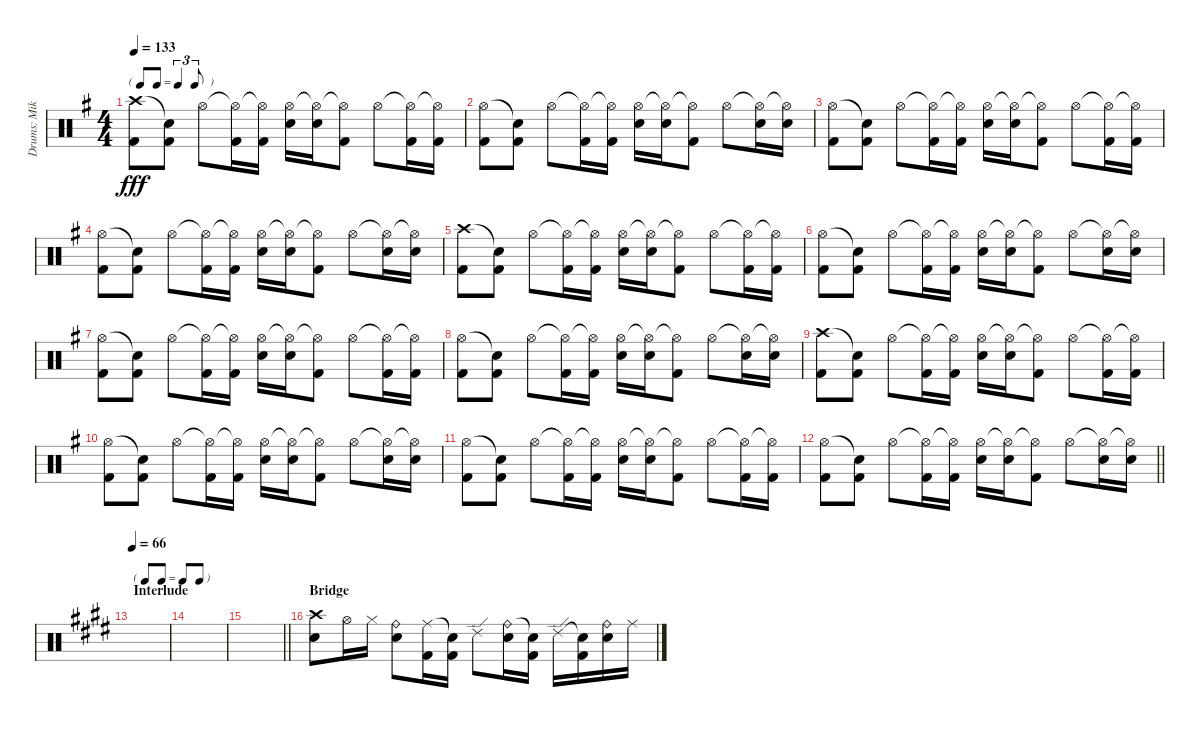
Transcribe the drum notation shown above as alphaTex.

\track ("Drums: Mike" "Drums: Mik") {instrument percussion}
\staff {score}
\articulation defaults
\ts (4 4)
\tf triplet8th
\tempo 133
\clef neutral
\ks g
("Crash high (hit)" "Kick (hit) 2").8{dy fff} ("Snare (hit)"{t} "Kick (hit) 2").8 "Hi-Hat (open)".8 ("Hi-Hat (open)"{t} "Kick (hit) 2").16 ("Hi-Hat (open)"{t} "Kick (hit) 2").16 ("Hi-Hat (open)" "Electric Snare (hit)").16 ("Hi-Hat (open)"{t} "Electric Snare (hit)").16 ("Hi-Hat (open)"{t} "Kick (hit) 2").8 "Hi-Hat (open)".8 ("Hi-Hat (open)"{t} "Kick (hit) 2").16 ("Hi-Hat (open)"{t} "Kick (hit) 2").16 |
("Hi-Hat (open)" "Kick (hit) 2").8 ("Snare (hit)"{t} "Kick (hit) 2").8 "Hi-Hat (open)".8 ("Hi-Hat (open)"{t} "Kick (hit) 2").16 ("Hi-Hat (open)"{t} "Kick (hit) 2").16 ("Hi-Hat (open)" "Electric Snare (hit)").16 ("Hi-Hat (open)"{t} "Electric Snare (hit)").16 ("Hi-Hat (open)"{t} "Kick (hit) 2").8 "Hi-Hat (open)".8 ("Hi-Hat (open)"{t} "Electric Snare (hit)").16 ("Hi-Hat (open)"{t} "Electric Snare (hit)").16 |
("Hi-Hat (open)" "Kick (hit) 2").8 ("Snare (hit)"{t} "Kick (hit) 2").8 "Hi-Hat (open)".8 ("Hi-Hat (open)"{t} "Kick (hit) 2").16 ("Hi-Hat (open)"{t} "Kick (hit) 2").16 ("Hi-Hat (open)" "Electric Snare (hit)").16 ("Hi-Hat (open)"{t} "Electric Snare (hit)").16 ("Hi-Hat (open)"{t} "Kick (hit) 2").8 "Hi-Hat (open)".8 ("Hi-Hat (open)"{t} "Kick (hit) 2").16 ("Hi-Hat (open)"{t} "Kick (hit) 2").16 |
("Hi-Hat (open)" "Kick (hit) 2").8 ("Snare (hit)"{t} "Kick (hit) 2").8 "Hi-Hat (open)".8 ("Hi-Hat (open)"{t} "Kick (hit) 2").16 ("Hi-Hat (open)"{t} "Kick (hit) 2").16 ("Hi-Hat (open)" "Electric Snare (hit)").16 ("Hi-Hat (open)"{t} "Electric Snare (hit)").16 ("Hi-Hat (open)"{t} "Kick (hit) 2").8 "Hi-Hat (open)".8 ("Hi-Hat (open)"{t} "Electric Snare (hit)").16 ("Hi-Hat (open)"{t} "Electric Snare (hit)").16 |
("Crash high (hit)" "Kick (hit) 2").8 ("Snare (hit)"{t} "Kick (hit) 2").8 "Hi-Hat (open)".8 ("Hi-Hat (open)"{t} "Kick (hit) 2").16 ("Hi-Hat (open)"{t} "Kick (hit) 2").16 ("Hi-Hat (open)" "Electric Snare (hit)").16 ("Hi-Hat (open)"{t} "Electric Snare (hit)").16 ("Hi-Hat (open)"{t} "Kick (hit) 2").8 "Hi-Hat (open)".8 ("Hi-Hat (open)"{t} "Kick (hit) 2").16 ("Hi-Hat (open)"{t} "Kick (hit) 2").16 |
("Hi-Hat (open)" "Kick (hit) 2").8 ("Snare (hit)"{t} "Kick (hit) 2").8 "Hi-Hat (open)".8 ("Hi-Hat (open)"{t} "Kick (hit) 2").16 ("Hi-Hat (open)"{t} "Kick (hit) 2").16 ("Hi-Hat (open)" "Electric Snare (hit)").16 ("Hi-Hat (open)"{t} "Electric Snare (hit)").16 ("Hi-Hat (open)"{t} "Kick (hit) 2").8 "Hi-Hat (open)".8 ("Hi-Hat (open)"{t} "Electric Snare (hit)").16 ("Hi-Hat (open)"{t} "Electric Snare (hit)").16 |
("Hi-Hat (open)" "Kick (hit) 2").8 ("Snare (hit)"{t} "Kick (hit) 2").8 "Hi-Hat (open)".8 ("Hi-Hat (open)"{t} "Kick (hit) 2").16 ("Hi-Hat (open)"{t} "Kick (hit) 2").16 ("Hi-Hat (open)" "Electric Snare (hit)").16 ("Hi-Hat (open)"{t} "Electric Snare (hit)").16 ("Hi-Hat (open)"{t} "Kick (hit) 2").8 "Hi-Hat (open)".8 ("Hi-Hat (open)"{t} "Kick (hit) 2").16 ("Hi-Hat (open)"{t} "Kick (hit) 2").16 |
("Hi-Hat (open)" "Kick (hit) 2").8 ("Snare (hit)"{t} "Kick (hit) 2").8 "Hi-Hat (open)".8 ("Hi-Hat (open)"{t} "Kick (hit) 2").16 ("Hi-Hat (open)"{t} "Kick (hit) 2").16 ("Hi-Hat (open)" "Electric Snare (hit)").16 ("Hi-Hat (open)"{t} "Electric Snare (hit)").16 ("Hi-Hat (open)"{t} "Kick (hit) 2").8 "Hi-Hat (open)".8 ("Hi-Hat (open)"{t} "Electric Snare (hit)").16 ("Hi-Hat (open)"{t} "Electric Snare (hit)").16 |
("Crash high (hit)" "Kick (hit) 2").8 ("Snare (hit)"{t} "Kick (hit) 2").8 "Hi-Hat (open)".8 ("Hi-Hat (open)"{t} "Kick (hit) 2").16 ("Hi-Hat (open)"{t} "Kick (hit) 2").16 ("Hi-Hat (open)" "Electric Snare (hit)").16 ("Hi-Hat (open)"{t} "Electric Snare (hit)").16 ("Hi-Hat (open)"{t} "Kick (hit) 2").8 "Hi-Hat (open)".8 ("Hi-Hat (open)"{t} "Kick (hit) 2").16 ("Hi-Hat (open)"{t} "Kick (hit) 2").16 |
("Hi-Hat (open)" "Kick (hit) 2").8 ("Snare (hit)"{t} "Kick (hit) 2").8 "Hi-Hat (open)".8 ("Hi-Hat (open)"{t} "Kick (hit) 2").16 ("Hi-Hat (open)"{t} "Kick (hit) 2").16 ("Hi-Hat (open)" "Electric Snare (hit)").16 ("Hi-Hat (open)"{t} "Electric Snare (hit)").16 ("Hi-Hat (open)"{t} "Kick (hit) 2").8 "Hi-Hat (open)".8 ("Hi-Hat (open)"{t} "Electric Snare (hit)").16 ("Hi-Hat (open)"{t} "Electric Snare (hit)").16 |
("Hi-Hat (open)" "Kick (hit) 2").8 ("Snare (hit)"{t} "Kick (hit) 2").8 "Hi-Hat (open)".8 ("Hi-Hat (open)"{t} "Kick (hit) 2").16 ("Hi-Hat (open)"{t} "Kick (hit) 2").16 ("Hi-Hat (open)" "Electric Snare (hit)").16 ("Hi-Hat (open)"{t} "Electric Snare (hit)").16 ("Hi-Hat (open)"{t} "Kick (hit) 2").8 "Hi-Hat (open)".8 ("Hi-Hat (open)"{t} "Kick (hit) 2").16 ("Hi-Hat (open)"{t} "Kick (hit) 2").16 |
\barLineRight lightlight
("Hi-Hat (open)" "Kick (hit) 2").8 ("Snare (hit)"{t} "Kick (hit) 2").8 "Hi-Hat (open)".8 ("Hi-Hat (open)"{t} "Kick (hit) 2").16 ("Hi-Hat (open)"{t} "Kick (hit) 2").16 ("Hi-Hat (open)" "Electric Snare (hit)").16 ("Hi-Hat (open)"{t} "Electric Snare (hit)").16 ("Hi-Hat (open)"{t} "Kick (hit) 2").8 "Hi-Hat (open)".8 ("Hi-Hat (open)"{t} "Electric Snare (hit)").16 ("Hi-Hat (open)"{t} "Electric Snare (hit)").16 |
\tf none
\section ("" "Interlude")
\tempo 66
\ks e
|
|
\barLineRight lightlight
|
\section ("" "Bridge")
("Crash high (hit)" "Electric Snare (hit)").8 "Hi-Hat (open)".16 "Hi-Hat (closed)".16 ("Ride (bell)" "Electric Snare (hit)").8 ("Ride (middle)" "Kick (hit) 2").16 ("Snare (hit)"{t} "Kick (hit) 2").16 "Ride (edge) 2".8 ("Ride (bell)" "Electric Snare (hit)").16 ("Snare (hit)"{t} "Kick (hit) 2").16 "Ride (edge) 2".16 ("Snare (hit)"{t} "Kick (hit) 2").16 ("Ride (bell)" "Electric Snare (hit)").16 "Ride (middle)".16
